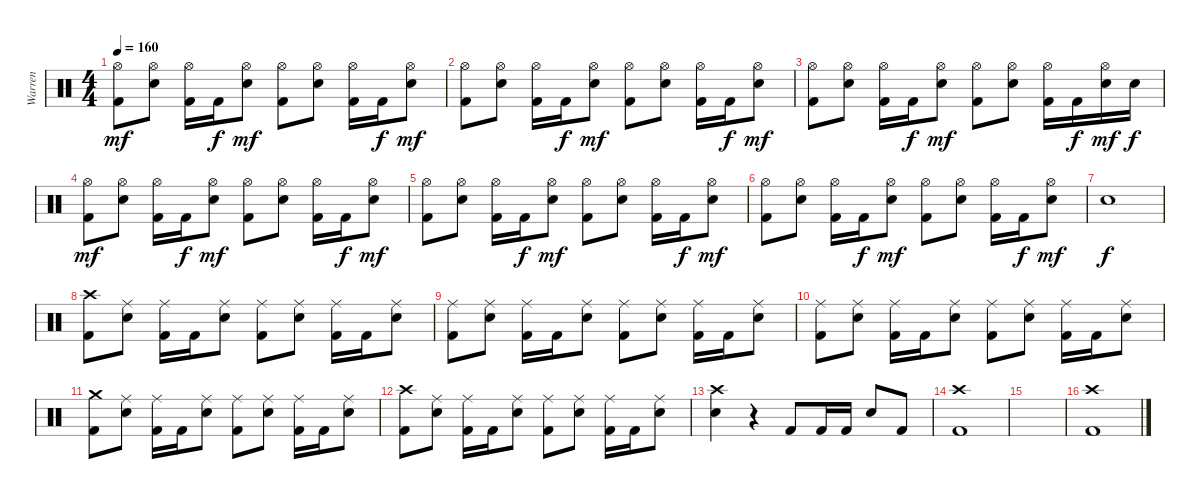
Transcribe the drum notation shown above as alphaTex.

\track ("Warren" "Warren") {instrument percussion}
\staff {score}
\articulation defaults
\ts (4 4)
\tempo 160
\clef neutral
\ks c
("Hi-Hat (open)" "Kick (hit) 2").8{dy mf} ("Hi-Hat (open)" "Electric Snare (hit)").8 ("Hi-Hat (open)" "Kick (hit) 2").16 "Kick (hit) 2".16{dy f} ("Hi-Hat (open)" "Electric Snare (hit)").8{dy mf} ("Hi-Hat (open)" "Kick (hit) 2").8 ("Hi-Hat (open)" "Electric Snare (hit)").8 ("Hi-Hat (open)" "Kick (hit) 2").16 "Kick (hit) 2".16{dy f} ("Hi-Hat (open)" "Electric Snare (hit)").8{dy mf} |
("Hi-Hat (open)" "Kick (hit) 2").8 ("Hi-Hat (open)" "Electric Snare (hit)").8 ("Hi-Hat (open)" "Kick (hit) 2").16 "Kick (hit) 2".16{dy f} ("Hi-Hat (open)" "Electric Snare (hit)").8{dy mf} ("Hi-Hat (open)" "Kick (hit) 2").8 ("Hi-Hat (open)" "Electric Snare (hit)").8 ("Hi-Hat (open)" "Kick (hit) 2").16 "Kick (hit) 2".16{dy f} ("Hi-Hat (open)" "Electric Snare (hit)").8{dy mf} |
("Hi-Hat (open)" "Kick (hit) 2").8 ("Hi-Hat (open)" "Electric Snare (hit)").8 ("Hi-Hat (open)" "Kick (hit) 2").16 "Kick (hit) 2".16{dy f} ("Hi-Hat (open)" "Electric Snare (hit)").8{dy mf} ("Hi-Hat (open)" "Kick (hit) 2").8 ("Hi-Hat (open)" "Electric Snare (hit)").8 ("Hi-Hat (open)" "Kick (hit) 2").16 "Kick (hit) 2".16{dy f} ("Hi-Hat (open)" "Electric Snare (hit)").16{dy mf} "Electric Snare (hit)".16{dy f} |
("Hi-Hat (open)" "Kick (hit) 2").8{dy mf} ("Hi-Hat (open)" "Electric Snare (hit)").8 ("Hi-Hat (open)" "Kick (hit) 2").16 "Kick (hit) 2".16{dy f} ("Hi-Hat (open)" "Electric Snare (hit)").8{dy mf} ("Hi-Hat (open)" "Kick (hit) 2").8 ("Hi-Hat (open)" "Electric Snare (hit)").8 ("Hi-Hat (open)" "Kick (hit) 2").16 "Kick (hit) 2".16{dy f} ("Hi-Hat (open)" "Electric Snare (hit)").8{dy mf} |
("Hi-Hat (open)" "Kick (hit) 2").8 ("Hi-Hat (open)" "Electric Snare (hit)").8 ("Hi-Hat (open)" "Kick (hit) 2").16 "Kick (hit) 2".16{dy f} ("Hi-Hat (open)" "Electric Snare (hit)").8{dy mf} ("Hi-Hat (open)" "Kick (hit) 2").8 ("Hi-Hat (open)" "Electric Snare (hit)").8 ("Hi-Hat (open)" "Kick (hit) 2").16 "Kick (hit) 2".16{dy f} ("Hi-Hat (open)" "Electric Snare (hit)").8{dy mf} |
("Hi-Hat (open)" "Kick (hit) 2").8 ("Hi-Hat (open)" "Electric Snare (hit)").8 ("Hi-Hat (open)" "Kick (hit) 2").16 "Kick (hit) 2".16{dy f} ("Hi-Hat (open)" "Electric Snare (hit)").8{dy mf} ("Hi-Hat (open)" "Kick (hit) 2").8 ("Hi-Hat (open)" "Electric Snare (hit)").8 ("Hi-Hat (open)" "Kick (hit) 2").16 "Kick (hit) 2".16{dy f} ("Hi-Hat (open)" "Electric Snare (hit)").8{dy mf} |
"Electric Snare (hit)".1{dy f} |
("Crash high (hit)" "Kick (hit) 2").8 ("Ride (middle)" "Electric Snare (hit)").8 ("Ride (middle)" "Kick (hit) 2").16 "Kick (hit) 2".16 ("Ride (middle)" "Electric Snare (hit)").8 ("Ride (middle)" "Kick (hit) 2").8 ("Ride (middle)" "Electric Snare (hit)").8 ("Ride (middle)" "Kick (hit) 2").16 "Kick (hit) 2".16 ("Ride (middle)" "Electric Snare (hit)").8 |
("Ride (middle)" "Kick (hit) 2").8 ("Ride (middle)" "Electric Snare (hit)").8 ("Ride (middle)" "Kick (hit) 2").16 "Kick (hit) 2".16 ("Ride (middle)" "Electric Snare (hit)").8 ("Ride (middle)" "Kick (hit) 2").8 ("Ride (middle)" "Electric Snare (hit)").8 ("Ride (middle)" "Kick (hit) 2").16 "Kick (hit) 2".16 ("Ride (middle)" "Electric Snare (hit)").8 |
("Ride (middle)" "Kick (hit) 2").8 ("Ride (middle)" "Electric Snare (hit)").8 ("Ride (middle)" "Kick (hit) 2").16 "Kick (hit) 2".16 ("Ride (middle)" "Electric Snare (hit)").8 ("Ride (middle)" "Kick (hit) 2").8 ("Ride (middle)" "Electric Snare (hit)").8 ("Ride (middle)" "Kick (hit) 2").16 "Kick (hit) 2".16 ("Ride (middle)" "Electric Snare (hit)").8 |
("Crash medium (hit)" "Kick (hit) 2").8 ("Ride (middle)" "Electric Snare (hit)").8 ("Ride (middle)" "Kick (hit) 2").16 "Kick (hit) 2".16 ("Ride (middle)" "Electric Snare (hit)").8 ("Ride (middle)" "Kick (hit) 2").8 ("Ride (middle)" "Electric Snare (hit)").8 ("Ride (middle)" "Kick (hit) 2").16 "Kick (hit) 2".16 ("Ride (middle)" "Electric Snare (hit)").8 |
("Crash high (hit)" "Kick (hit) 2").8 ("Ride (middle)" "Electric Snare (hit)").8 ("Ride (middle)" "Kick (hit) 2").16 "Kick (hit) 2".16 ("Ride (middle)" "Electric Snare (hit)").8 ("Ride (middle)" "Kick (hit) 2").8 ("Ride (middle)" "Electric Snare (hit)").8 ("Ride (middle)" "Kick (hit) 2").16 "Kick (hit) 2".16 ("Ride (middle)" "Electric Snare (hit)").8 |
("Crash high (hit)" "Electric Snare (hit)").4 r.4 "Kick (hit) 2".8 "Kick (hit) 2".16 "Kick (hit) 2".16 "Electric Snare (hit)".8 "Kick (hit) 2".8 |
("Crash high (hit)" "Kick (hit) 2").1 |
|
("Crash high (hit)" "Kick (hit) 2").1
